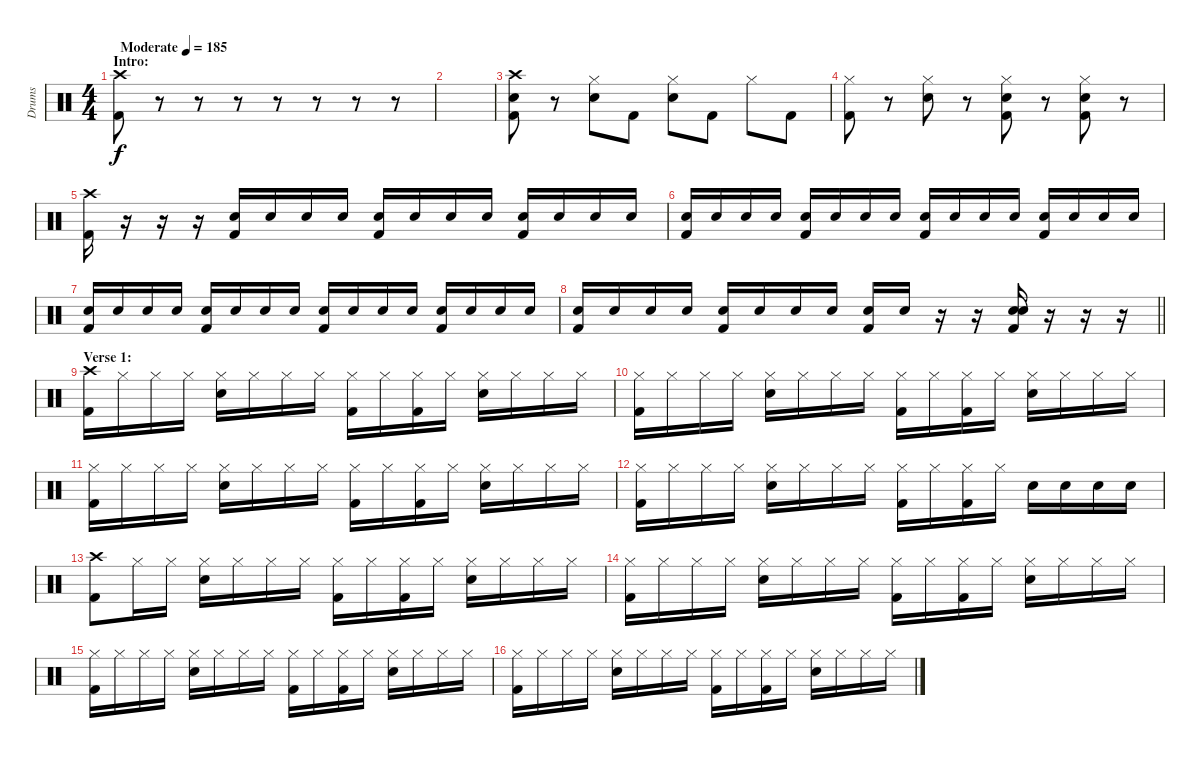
\track ("Drums" "Drums") {instrument percussion}
\staff {score}
\articulation defaults
\ts (4 4)
\section ("" "Intro:")
\tempo (185 "Moderate")
\clef neutral
\ks c
("Crash high (hit)" "Kick (hit) 2").8{dy f} r.8 r.8 r.8 r.8 r.8 r.8 r.8 |
|
("Crash high (hit)" "Snare (hit) 2" "Kick (hit) 2").8 r.8 ("Hi-Hat (closed)" "Snare (hit) 2").8 "Kick (hit) 2".8 ("Hi-Hat (closed)" "Snare (hit) 2").8 "Kick (hit) 2".8 "Hi-Hat (closed)".8 "Kick (hit) 2".8 |
("Hi-Hat (closed)" "Kick (hit) 2").8 r.8 ("Hi-Hat (closed)" "Snare (hit) 2").8 r.8 ("Hi-Hat (closed)" "Snare (hit) 2" "Kick (hit) 2").8 r.8 ("Hi-Hat (closed)" "Snare (hit) 2" "Kick (hit) 2").8 r.8 |
("Crash high (hit)" "Kick (hit) 2").16 r.16 r.16 r.16 ("Snare (hit) 2" "Kick (hit) 2").16 "Snare (hit) 2".16 "Snare (hit) 2".16 "Snare (hit) 2".16 ("Snare (hit) 2" "Kick (hit) 2").16 "Snare (hit) 2".16 "Snare (hit) 2".16 "Snare (hit) 2".16 ("Snare (hit) 2" "Kick (hit) 2").16 "Snare (hit) 2".16 "Snare (hit) 2".16 "Snare (hit) 2".16 |
("Snare (hit) 2" "Kick (hit) 2").16 "Snare (hit) 2".16 "Snare (hit) 2".16 "Snare (hit) 2".16 ("Snare (hit) 2" "Kick (hit) 2").16 "Snare (hit) 2".16 "Snare (hit) 2".16 "Snare (hit) 2".16 ("Snare (hit) 2" "Kick (hit) 2").16 "Snare (hit) 2".16 "Snare (hit) 2".16 "Snare (hit) 2".16 ("Snare (hit) 2" "Kick (hit) 2").16 "Snare (hit) 2".16 "Snare (hit) 2".16 "Snare (hit) 2".16 |
("Snare (hit) 2" "Kick (hit) 2").16 "Snare (hit) 2".16 "Snare (hit) 2".16 "Snare (hit) 2".16 ("Snare (hit) 2" "Kick (hit) 2").16 "Snare (hit) 2".16 "Snare (hit) 2".16 "Snare (hit) 2".16 ("Snare (hit) 2" "Kick (hit) 2").16 "Snare (hit) 2".16 "Snare (hit) 2".16 "Snare (hit) 2".16 ("Snare (hit) 2" "Kick (hit) 2").16 "Snare (hit) 2".16 "Snare (hit) 2".16 "Snare (hit) 2".16 |
\barLineRight lightlight
("Snare (hit) 2" "Kick (hit) 2").16 "Snare (hit) 2".16 "Snare (hit) 2".16 "Snare (hit) 2".16 ("Snare (hit) 2" "Kick (hit) 2").16 "Snare (hit) 2".16 "Snare (hit) 2".16 "Snare (hit) 2".16 ("Snare (hit) 2" "Kick (hit) 2").16 "Snare (hit) 2".16 r.16 r.16 ("Snare (hit) 2" "Snare (hit) 2" "Kick (hit) 2").16 r.16 r.16 r.16 |
\section ("" "Verse 1:")
("Crash high (hit)" "Kick (hit) 2").16 "Hi-Hat (closed)".16 "Hi-Hat (closed)".16 "Hi-Hat (closed)".16 ("Hi-Hat (closed)" "Snare (hit) 2").16 "Hi-Hat (closed)".16 "Hi-Hat (closed)".16 "Hi-Hat (closed)".16 ("Hi-Hat (closed)" "Kick (hit) 2").16 "Hi-Hat (closed)".16 ("Hi-Hat (closed)" "Kick (hit) 2").16 "Hi-Hat (closed)".16 ("Hi-Hat (closed)" "Snare (hit) 2").16 "Hi-Hat (closed)".16 "Hi-Hat (closed)".16 "Hi-Hat (closed)".16 |
("Hi-Hat (closed)" "Kick (hit) 2").16 "Hi-Hat (closed)".16 "Hi-Hat (closed)".16 "Hi-Hat (closed)".16 ("Hi-Hat (closed)" "Snare (hit) 2").16 "Hi-Hat (closed)".16 "Hi-Hat (closed)".16 "Hi-Hat (closed)".16 ("Hi-Hat (closed)" "Kick (hit) 2").16 "Hi-Hat (closed)".16 ("Hi-Hat (closed)" "Kick (hit) 2").16 "Hi-Hat (closed)".16 ("Hi-Hat (closed)" "Snare (hit) 2").16 "Hi-Hat (closed)".16 "Hi-Hat (closed)".16 "Hi-Hat (closed)".16 |
("Hi-Hat (closed)" "Kick (hit) 2").16 "Hi-Hat (closed)".16 "Hi-Hat (closed)".16 "Hi-Hat (closed)".16 ("Hi-Hat (closed)" "Snare (hit) 2").16 "Hi-Hat (closed)".16 "Hi-Hat (closed)".16 "Hi-Hat (closed)".16 ("Hi-Hat (closed)" "Kick (hit) 2").16 "Hi-Hat (closed)".16 ("Hi-Hat (closed)" "Kick (hit) 2").16 "Hi-Hat (closed)".16 ("Hi-Hat (closed)" "Snare (hit) 2").16 "Hi-Hat (closed)".16 "Hi-Hat (closed)".16 "Hi-Hat (closed)".16 |
("Hi-Hat (closed)" "Kick (hit) 2").16 "Hi-Hat (closed)".16 "Hi-Hat (closed)".16 "Hi-Hat (closed)".16 ("Hi-Hat (closed)" "Snare (hit) 2").16 "Hi-Hat (closed)".16 "Hi-Hat (closed)".16 "Hi-Hat (closed)".16 ("Hi-Hat (closed)" "Kick (hit) 2").16 "Hi-Hat (closed)".16 ("Hi-Hat (closed)" "Kick (hit) 2").16 "Hi-Hat (closed)".16 "Snare (hit) 2".16 "Snare (hit) 2".16 "Snare (hit) 2".16 "Snare (hit) 2".16 |
("Crash high (hit)" "Kick (hit) 2").8 "Hi-Hat (closed)".16 "Hi-Hat (closed)".16 ("Hi-Hat (closed)" "Snare (hit) 2").16 "Hi-Hat (closed)".16 "Hi-Hat (closed)".16 "Hi-Hat (closed)".16 ("Hi-Hat (closed)" "Kick (hit) 2").16 "Hi-Hat (closed)".16 ("Hi-Hat (closed)" "Kick (hit) 2").16 "Hi-Hat (closed)".16 ("Hi-Hat (closed)" "Snare (hit) 2").16 "Hi-Hat (closed)".16 "Hi-Hat (closed)".16 "Hi-Hat (closed)".16 |
("Hi-Hat (closed)" "Kick (hit) 2").16 "Hi-Hat (closed)".16 "Hi-Hat (closed)".16 "Hi-Hat (closed)".16 ("Hi-Hat (closed)" "Snare (hit) 2").16 "Hi-Hat (closed)".16 "Hi-Hat (closed)".16 "Hi-Hat (closed)".16 ("Hi-Hat (closed)" "Kick (hit) 2").16 "Hi-Hat (closed)".16 ("Hi-Hat (closed)" "Kick (hit) 2").16 "Hi-Hat (closed)".16 ("Hi-Hat (closed)" "Snare (hit) 2").16 "Hi-Hat (closed)".16 "Hi-Hat (closed)".16 "Hi-Hat (closed)".16 |
("Hi-Hat (closed)" "Kick (hit) 2").16 "Hi-Hat (closed)".16 "Hi-Hat (closed)".16 "Hi-Hat (closed)".16 ("Hi-Hat (closed)" "Snare (hit) 2").16 "Hi-Hat (closed)".16 "Hi-Hat (closed)".16 "Hi-Hat (closed)".16 ("Hi-Hat (closed)" "Kick (hit) 2").16 "Hi-Hat (closed)".16 ("Hi-Hat (closed)" "Kick (hit) 2").16 "Hi-Hat (closed)".16 ("Hi-Hat (closed)" "Snare (hit) 2").16 "Hi-Hat (closed)".16 "Hi-Hat (closed)".16 "Hi-Hat (closed)".16 |
("Hi-Hat (closed)" "Kick (hit) 2").16 "Hi-Hat (closed)".16 "Hi-Hat (closed)".16 "Hi-Hat (closed)".16 ("Hi-Hat (closed)" "Snare (hit) 2").16 "Hi-Hat (closed)".16 "Hi-Hat (closed)".16 "Hi-Hat (closed)".16 ("Hi-Hat (closed)" "Kick (hit) 2").16 "Hi-Hat (closed)".16 ("Hi-Hat (closed)" "Kick (hit) 2").16 "Hi-Hat (closed)".16 ("Hi-Hat (closed)" "Snare (hit) 2").16 "Hi-Hat (closed)".16 "Hi-Hat (closed)".16 "Hi-Hat (closed)".16
